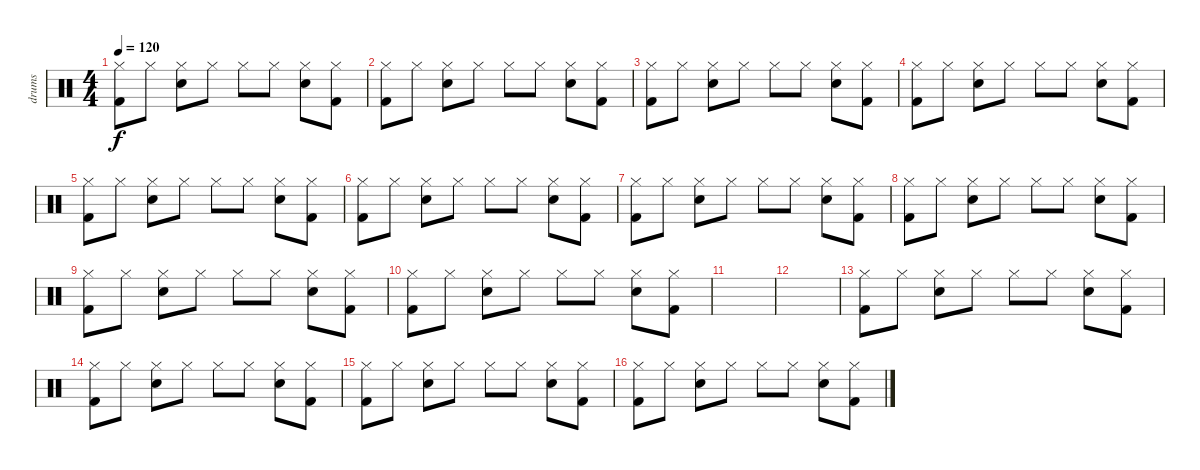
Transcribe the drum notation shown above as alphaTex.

\track ("drums" "drums") {instrument percussion}
\staff {score}
\articulation defaults
\ts (4 4)
\tempo 120
\clef neutral
\ks c
("Kick (hit) 2" "Hi-Hat (closed)").8{dy f} "Hi-Hat (closed)".8 ("Hi-Hat (closed)" "Snare (hit) 2").8 "Hi-Hat (closed)".8 "Hi-Hat (closed)".8 "Hi-Hat (closed)".8 ("Snare (hit) 2" "Hi-Hat (closed)").8 ("Hi-Hat (closed)" "Kick (hit) 2").8 |
("Kick (hit) 2" "Hi-Hat (closed)").8 "Hi-Hat (closed)".8 ("Hi-Hat (closed)" "Snare (hit) 2").8 "Hi-Hat (closed)".8 "Hi-Hat (closed)".8 "Hi-Hat (closed)".8 ("Snare (hit) 2" "Hi-Hat (closed)").8 ("Hi-Hat (closed)" "Kick (hit) 2").8 |
("Kick (hit) 2" "Hi-Hat (closed)").8 "Hi-Hat (closed)".8 ("Hi-Hat (closed)" "Snare (hit) 2").8 "Hi-Hat (closed)".8 "Hi-Hat (closed)".8 "Hi-Hat (closed)".8 ("Snare (hit) 2" "Hi-Hat (closed)").8 ("Hi-Hat (closed)" "Kick (hit) 2").8 |
("Kick (hit) 2" "Hi-Hat (closed)").8 "Hi-Hat (closed)".8 ("Hi-Hat (closed)" "Snare (hit) 2").8 "Hi-Hat (closed)".8 "Hi-Hat (closed)".8 "Hi-Hat (closed)".8 ("Snare (hit) 2" "Hi-Hat (closed)").8 ("Hi-Hat (closed)" "Kick (hit) 2").8 |
("Kick (hit) 2" "Hi-Hat (closed)").8 "Hi-Hat (closed)".8 ("Hi-Hat (closed)" "Snare (hit) 2").8 "Hi-Hat (closed)".8 "Hi-Hat (closed)".8 "Hi-Hat (closed)".8 ("Snare (hit) 2" "Hi-Hat (closed)").8 ("Hi-Hat (closed)" "Kick (hit) 2").8 |
("Kick (hit) 2" "Hi-Hat (closed)").8 "Hi-Hat (closed)".8 ("Hi-Hat (closed)" "Snare (hit) 2").8 "Hi-Hat (closed)".8 "Hi-Hat (closed)".8 "Hi-Hat (closed)".8 ("Snare (hit) 2" "Hi-Hat (closed)").8 ("Hi-Hat (closed)" "Kick (hit) 2").8 |
("Kick (hit) 2" "Hi-Hat (closed)").8 "Hi-Hat (closed)".8 ("Hi-Hat (closed)" "Snare (hit) 2").8 "Hi-Hat (closed)".8 "Hi-Hat (closed)".8 "Hi-Hat (closed)".8 ("Snare (hit) 2" "Hi-Hat (closed)").8 ("Hi-Hat (closed)" "Kick (hit) 2").8 |
("Kick (hit) 2" "Hi-Hat (closed)").8 "Hi-Hat (closed)".8 ("Hi-Hat (closed)" "Snare (hit) 2").8 "Hi-Hat (closed)".8 "Hi-Hat (closed)".8 "Hi-Hat (closed)".8 ("Snare (hit) 2" "Hi-Hat (closed)").8 ("Hi-Hat (closed)" "Kick (hit) 2").8 |
("Kick (hit) 2" "Hi-Hat (closed)").8 "Hi-Hat (closed)".8 ("Hi-Hat (closed)" "Snare (hit) 2").8 "Hi-Hat (closed)".8 "Hi-Hat (closed)".8 "Hi-Hat (closed)".8 ("Snare (hit) 2" "Hi-Hat (closed)").8 ("Hi-Hat (closed)" "Kick (hit) 2").8 |
("Kick (hit) 2" "Hi-Hat (closed)").8 "Hi-Hat (closed)".8 ("Hi-Hat (closed)" "Snare (hit) 2").8 "Hi-Hat (closed)".8 "Hi-Hat (closed)".8 "Hi-Hat (closed)".8 ("Snare (hit) 2" "Hi-Hat (closed)").8 ("Hi-Hat (closed)" "Kick (hit) 2").8 |
|
|
("Kick (hit) 2" "Hi-Hat (closed)").8 "Hi-Hat (closed)".8 ("Hi-Hat (closed)" "Snare (hit) 2").8 "Hi-Hat (closed)".8 "Hi-Hat (closed)".8 "Hi-Hat (closed)".8 ("Snare (hit) 2" "Hi-Hat (closed)").8 ("Hi-Hat (closed)" "Kick (hit) 2").8 |
("Kick (hit) 2" "Hi-Hat (closed)").8 "Hi-Hat (closed)".8 ("Hi-Hat (closed)" "Snare (hit) 2").8 "Hi-Hat (closed)".8 "Hi-Hat (closed)".8 "Hi-Hat (closed)".8 ("Snare (hit) 2" "Hi-Hat (closed)").8 ("Hi-Hat (closed)" "Kick (hit) 2").8 |
("Kick (hit) 2" "Hi-Hat (closed)").8 "Hi-Hat (closed)".8 ("Hi-Hat (closed)" "Snare (hit) 2").8 "Hi-Hat (closed)".8 "Hi-Hat (closed)".8 "Hi-Hat (closed)".8 ("Snare (hit) 2" "Hi-Hat (closed)").8 ("Hi-Hat (closed)" "Kick (hit) 2").8 |
("Kick (hit) 2" "Hi-Hat (closed)").8 "Hi-Hat (closed)".8 ("Hi-Hat (closed)" "Snare (hit) 2").8 "Hi-Hat (closed)".8 "Hi-Hat (closed)".8 "Hi-Hat (closed)".8 ("Snare (hit) 2" "Hi-Hat (closed)").8 ("Hi-Hat (closed)" "Kick (hit) 2").8
